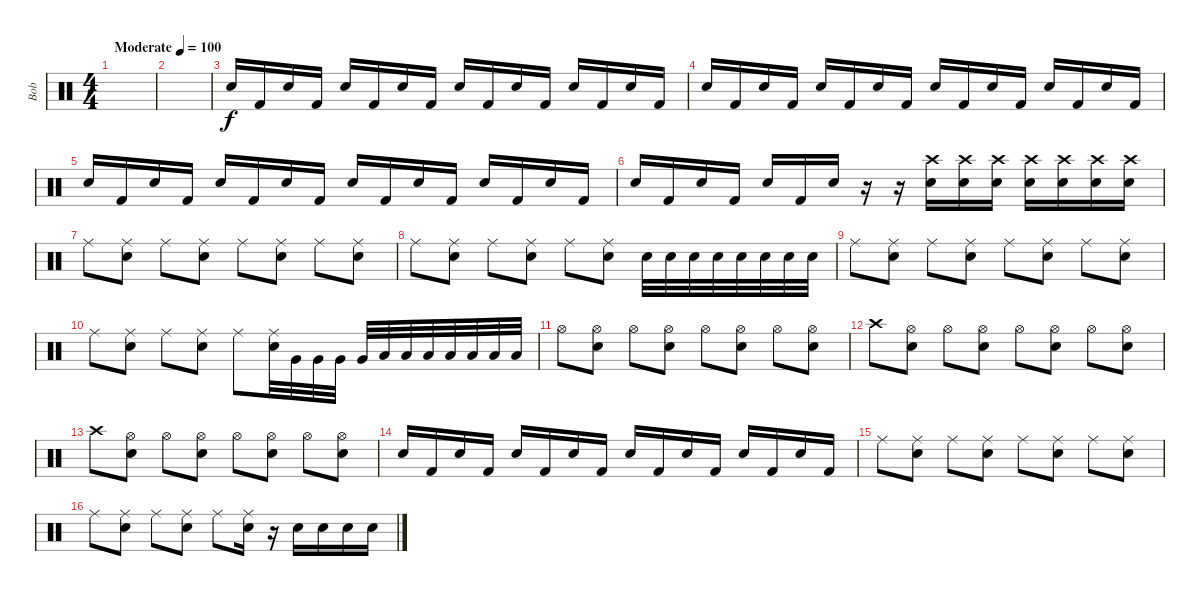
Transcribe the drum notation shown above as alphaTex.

\track ("Bob" "Bob") {instrument percussion}
\staff {score}
\articulation defaults
\ts (4 4)
\tempo (100 "Moderate")
\clef neutral
\ks c
|
|
"Snare (hit) 2".16 "Kick (hit) 2".16 "Snare (hit) 2".16 "Kick (hit) 2".16 "Snare (hit) 2".16 "Kick (hit) 2".16 "Snare (hit) 2".16 "Kick (hit) 2".16 "Snare (hit) 2".16 "Kick (hit) 2".16 "Snare (hit) 2".16 "Kick (hit) 2".16 "Snare (hit) 2".16 "Kick (hit) 2".16 "Snare (hit) 2".16 "Kick (hit) 2".16 |
"Snare (hit) 2".16 "Kick (hit) 2".16 "Snare (hit) 2".16 "Kick (hit) 2".16 "Snare (hit) 2".16 "Kick (hit) 2".16 "Snare (hit) 2".16 "Kick (hit) 2".16 "Snare (hit) 2".16 "Kick (hit) 2".16 "Snare (hit) 2".16 "Kick (hit) 2".16 "Snare (hit) 2".16 "Kick (hit) 2".16 "Snare (hit) 2".16 "Kick (hit) 2".16 |
"Snare (hit) 2".16 "Kick (hit) 2".16 "Snare (hit) 2".16 "Kick (hit) 2".16 "Snare (hit) 2".16 "Kick (hit) 2".16 "Snare (hit) 2".16 "Kick (hit) 2".16 "Snare (hit) 2".16 "Kick (hit) 2".16 "Snare (hit) 2".16 "Kick (hit) 2".16 "Snare (hit) 2".16 "Kick (hit) 2".16 "Snare (hit) 2".16 "Kick (hit) 2".16 |
"Snare (hit) 2".16 "Kick (hit) 2".16 "Snare (hit) 2".16 "Kick (hit) 2".16 "Snare (hit) 2".16 "Kick (hit) 2".16 "Snare (hit) 2".16 r.16 r.16 ("Crash high (hit)" "Snare (hit) 2").16 ("Crash high (hit)" "Snare (hit) 2").16 ("Crash high (hit)" "Snare (hit) 2").16 ("Crash high (hit)" "Snare (hit) 2").16 ("Crash high (hit)" "Snare (hit) 2").16 ("Crash high (hit)" "Snare (hit) 2").16 ("Crash high (hit)" "Snare (hit) 2").16 |
"Ride (middle)".8 ("Ride (middle)" "Snare (hit) 2").8 "Ride (middle)".8 ("Ride (middle)" "Snare (hit) 2").8 "Ride (middle)".8 ("Ride (middle)" "Snare (hit) 2").8 "Ride (middle)".8 ("Ride (middle)" "Snare (hit) 2").8 |
"Ride (middle)".8 ("Ride (middle)" "Snare (hit) 2").8 "Ride (middle)".8 ("Ride (middle)" "Snare (hit) 2").8 "Ride (middle)".8 ("Ride (middle)" "Snare (hit) 2").8 "Snare (hit) 2".32 "Snare (hit) 2".32 "Snare (hit) 2".32 "Snare (hit) 2".32 "Snare (hit) 2".32 "Snare (hit) 2".32 "Snare (hit) 2".32 "Snare (hit) 2".32 |
"Ride (middle)".8 ("Ride (middle)" "Snare (hit) 2").8 "Ride (middle)".8 ("Ride (middle)" "Snare (hit) 2").8 "Ride (middle)".8 ("Ride (middle)" "Snare (hit) 2").8 "Ride (middle)".8 ("Ride (middle)" "Snare (hit) 2").8 |
"Ride (middle)".8 ("Ride (middle)" "Snare (hit) 2").8 "Ride (middle)".8 ("Ride (middle)" "Snare (hit) 2").8 "Ride (middle)".8 ("Ride (middle)" "Snare (hit) 2").32 "Very Low Tom (hit)".32 "Very Low Tom (hit)".32 "Very Low Tom (hit)".32 "Very Low Tom (hit)".32 "Low Floor Tom (hit)".32 "Low Floor Tom (hit)".32 "Low Floor Tom (hit)".32 "Low Floor Tom (hit)".32 "Low Floor Tom (hit)".32 "Low Floor Tom (hit)".32 "Low Floor Tom (hit)".32 |
"Hi-Hat (open)".8 ("Hi-Hat (open)" "Snare (hit) 2").8 "Hi-Hat (open)".8 ("Hi-Hat (open)" "Snare (hit) 2").8 "Hi-Hat (open)".8 ("Snare (hit) 2" "Hi-Hat (open)").8 "Hi-Hat (open)".8 ("Snare (hit) 2" "Hi-Hat (open)").8 |
"Crash high (hit)".8 ("Hi-Hat (open)" "Snare (hit) 2").8 "Hi-Hat (open)".8 ("Hi-Hat (open)" "Snare (hit) 2").8 "Hi-Hat (open)".8 ("Hi-Hat (open)" "Snare (hit) 2").8 "Hi-Hat (open)".8 ("Hi-Hat (open)" "Snare (hit) 2").8 |
"Crash high (hit)".8 ("Snare (hit) 2" "Hi-Hat (open)").8 "Hi-Hat (open)".8 ("Hi-Hat (open)" "Snare (hit) 2").8 "Hi-Hat (open)".8 ("Hi-Hat (open)" "Snare (hit) 2").8 "Hi-Hat (open)".8 ("Hi-Hat (open)" "Snare (hit) 2").8 |
"Snare (hit) 2".16 "Kick (hit) 2".16 "Snare (hit) 2".16 "Kick (hit) 2".16 "Snare (hit) 2".16 "Kick (hit) 2".16 "Snare (hit) 2".16 "Kick (hit) 2".16 "Snare (hit) 2".16 "Kick (hit) 2".16 "Snare (hit) 2".16 "Kick (hit) 2".16 "Snare (hit) 2".16 "Kick (hit) 2".16 "Snare (hit) 2".16 "Kick (hit) 2".16 |
"Ride (middle)".8 ("Ride (middle)" "Snare (hit) 2").8 "Ride (middle)".8 ("Ride (middle)" "Snare (hit) 2").8 "Ride (middle)".8 ("Ride (middle)" "Snare (hit) 2").8 "Ride (middle)".8 ("Ride (middle)" "Snare (hit) 2").8 |
"Ride (middle)".8 ("Ride (middle)" "Snare (hit) 2").8 "Ride (middle)".8 ("Ride (middle)" "Snare (hit) 2").8 "Ride (middle)".8 ("Ride (middle)" "Snare (hit) 2").16 r.16 "Snare (hit) 2".16 "Snare (hit) 2".16 "Snare (hit) 2".16 "Snare (hit) 2".16
